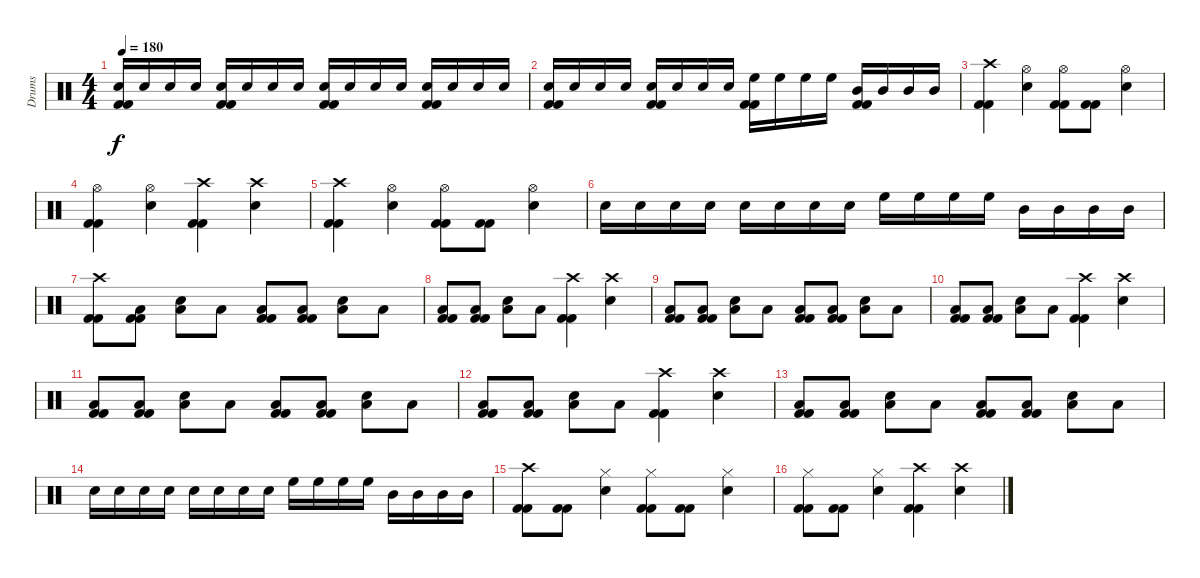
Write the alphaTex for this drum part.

\track ("Drums" "Drums") {instrument percussion}
\staff {score}
\articulation defaults
\ts (4 4)
\tempo 180
\clef neutral
\ks c
("Snare (hit) 2" "Kick (hit) 2" "Kick (hit) 2").16{dy f} "Snare (hit) 2".16 "Snare (hit) 2".16 "Snare (hit) 2".16 ("Snare (hit) 2" "Kick (hit) 2" "Kick (hit) 2").16 "Snare (hit) 2".16 "Snare (hit) 2".16 "Snare (hit) 2".16 ("Snare (hit) 2" "Kick (hit) 2" "Kick (hit) 2").16 "Snare (hit) 2".16 "Snare (hit) 2".16 "Snare (hit) 2".16 ("Snare (hit) 2" "Kick (hit) 2" "Kick (hit) 2").16 "Snare (hit) 2".16 "Snare (hit) 2".16 "Snare (hit) 2".16 |
("Snare (hit) 2" "Kick (hit) 2" "Kick (hit) 2").16 "Snare (hit) 2".16 "Snare (hit) 2".16 "Snare (hit) 2".16 ("Snare (hit) 2" "Kick (hit) 2" "Kick (hit) 2").16 "Snare (hit) 2".16 "Snare (hit) 2".16 "Snare (hit) 2".16 ("High Floor Tom (hit)" "Kick (hit) 2" "Kick (hit) 2").16 "High Floor Tom (hit)".16 "High Floor Tom (hit)".16 "High Floor Tom (hit)".16 ("Mid Tom (hit)" "Kick (hit) 2" "Kick (hit) 2").16 "Mid Tom (hit)".16 "Mid Tom (hit)".16 "Mid Tom (hit)".16 |
("Crash high (hit)" "Kick (hit) 2" "Kick (hit) 2").4 ("Hi-Hat (open)" "Snare (hit) 2").4 ("Hi-Hat (open)" "Kick (hit) 2" "Kick (hit) 2").8 ("Kick (hit) 2" "Kick (hit) 2").8 ("Hi-Hat (open)" "Snare (hit) 2").4 |
("Hi-Hat (open)" "Kick (hit) 2" "Kick (hit) 2").4 ("Hi-Hat (open)" "Snare (hit) 2").4 ("Crash high (hit)" "Kick (hit) 2" "Kick (hit) 2").4 ("Crash high (hit)" "Snare (hit) 2").4 |
("Crash high (hit)" "Kick (hit) 2" "Kick (hit) 2").4 ("Hi-Hat (open)" "Snare (hit) 2").4 ("Hi-Hat (open)" "Kick (hit) 2" "Kick (hit) 2").8 ("Kick (hit) 2" "Kick (hit) 2").8 ("Hi-Hat (open)" "Snare (hit) 2").4 |
"Snare (hit) 2".16 "Snare (hit) 2".16 "Snare (hit) 2".16 "Snare (hit) 2".16 "Snare (hit) 2".16 "Snare (hit) 2".16 "Snare (hit) 2".16 "Snare (hit) 2".16 "High Floor Tom (hit)".16 "High Floor Tom (hit)".16 "High Floor Tom (hit)".16 "High Floor Tom (hit)".16 "Mid Tom (hit)".16 "Mid Tom (hit)".16 "Mid Tom (hit)".16 "Mid Tom (hit)".16 |
("Crash high (hit)" "Kick (hit) 2" "Kick (hit) 2").8 ("Low Tom (hit)" "Kick (hit) 2" "Kick (hit) 2").8 ("Low Tom (hit)" "Snare (hit) 2").8 "Low Tom (hit)".8 ("Low Tom (hit)" "Kick (hit) 2" "Kick (hit) 2").8 ("Low Tom (hit)" "Kick (hit) 2" "Kick (hit) 2").8 ("Low Tom (hit)" "Snare (hit) 2").8 "Low Tom (hit)".8 |
("Low Tom (hit)" "Kick (hit) 2" "Kick (hit) 2").8 ("Low Tom (hit)" "Kick (hit) 2" "Kick (hit) 2").8 ("Low Tom (hit)" "Snare (hit) 2").8 "Low Tom (hit)".8 ("Crash high (hit)" "Kick (hit) 2" "Kick (hit) 2").4 ("Crash high (hit)" "Snare (hit) 2").4 |
("Low Tom (hit)" "Kick (hit) 2" "Kick (hit) 2").8 ("Low Tom (hit)" "Kick (hit) 2" "Kick (hit) 2").8 ("Low Tom (hit)" "Snare (hit) 2").8 "Low Tom (hit)".8 ("Low Tom (hit)" "Kick (hit) 2" "Kick (hit) 2").8 ("Low Tom (hit)" "Kick (hit) 2" "Kick (hit) 2").8 ("Low Tom (hit)" "Snare (hit) 2").8 "Low Tom (hit)".8 |
("Low Tom (hit)" "Kick (hit) 2" "Kick (hit) 2").8 ("Low Tom (hit)" "Kick (hit) 2" "Kick (hit) 2").8 ("Low Tom (hit)" "Snare (hit) 2").8 "Low Tom (hit)".8 ("Crash high (hit)" "Kick (hit) 2" "Kick (hit) 2").4 ("Crash high (hit)" "Snare (hit) 2").4 |
("Low Tom (hit)" "Kick (hit) 2" "Kick (hit) 2").8 ("Low Tom (hit)" "Kick (hit) 2" "Kick (hit) 2").8 ("Low Tom (hit)" "Snare (hit) 2").8 "Low Tom (hit)".8 ("Low Tom (hit)" "Kick (hit) 2" "Kick (hit) 2").8 ("Low Tom (hit)" "Kick (hit) 2" "Kick (hit) 2").8 ("Low Tom (hit)" "Snare (hit) 2").8 "Low Tom (hit)".8 |
("Low Tom (hit)" "Kick (hit) 2" "Kick (hit) 2").8 ("Low Tom (hit)" "Kick (hit) 2" "Kick (hit) 2").8 ("Low Tom (hit)" "Snare (hit) 2").8 "Low Tom (hit)".8 ("Crash high (hit)" "Kick (hit) 2" "Kick (hit) 2").4 ("Crash high (hit)" "Snare (hit) 2").4 |
("Low Tom (hit)" "Kick (hit) 2" "Kick (hit) 2").8 ("Low Tom (hit)" "Kick (hit) 2" "Kick (hit) 2").8 ("Low Tom (hit)" "Snare (hit) 2").8 "Low Tom (hit)".8 ("Low Tom (hit)" "Kick (hit) 2" "Kick (hit) 2").8 ("Low Tom (hit)" "Kick (hit) 2" "Kick (hit) 2").8 ("Low Tom (hit)" "Snare (hit) 2").8 "Low Tom (hit)".8 |
"Snare (hit) 2".16 "Snare (hit) 2".16 "Snare (hit) 2".16 "Snare (hit) 2".16 "Snare (hit) 2".16 "Snare (hit) 2".16 "Snare (hit) 2".16 "Snare (hit) 2".16 "High Floor Tom (hit)".16 "High Floor Tom (hit)".16 "High Floor Tom (hit)".16 "High Floor Tom (hit)".16 "Mid Tom (hit)".16 "Mid Tom (hit)".16 "Mid Tom (hit)".16 "Mid Tom (hit)".16 |
("Crash high (hit)" "Kick (hit) 2" "Kick (hit) 2").8 ("Kick (hit) 2" "Kick (hit) 2").8 ("Hi-Hat (closed)" "Snare (hit) 2").4 ("Hi-Hat (closed)" "Kick (hit) 2" "Kick (hit) 2").8 ("Kick (hit) 2" "Kick (hit) 2").8 ("Hi-Hat (closed)" "Snare (hit) 2").4 |
("Hi-Hat (closed)" "Kick (hit) 2" "Kick (hit) 2").8 ("Kick (hit) 2" "Kick (hit) 2").8 ("Hi-Hat (closed)" "Snare (hit) 2").4 ("Crash high (hit)" "Kick (hit) 2" "Kick (hit) 2").4 ("Crash high (hit)" "Snare (hit) 2").4
